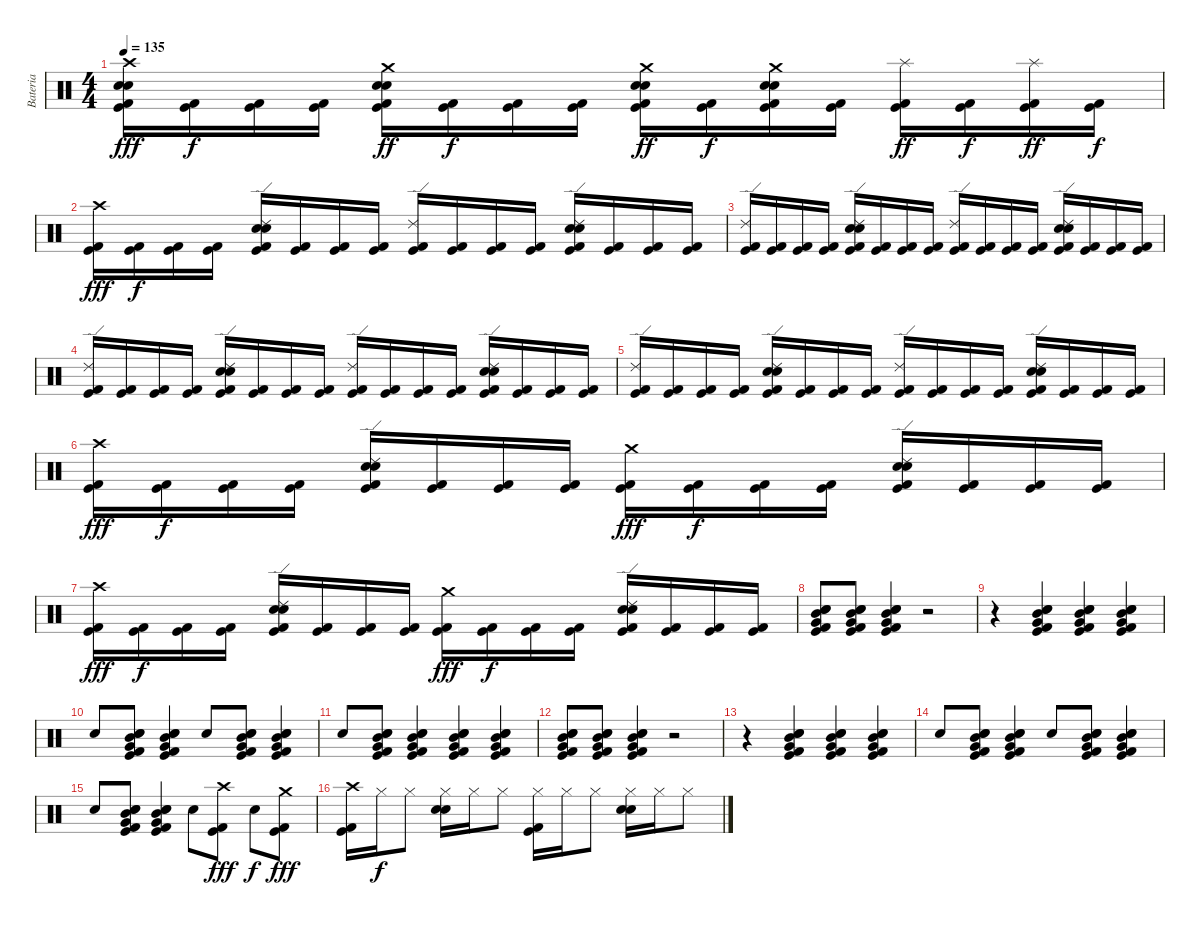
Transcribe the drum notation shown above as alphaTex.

\track ("Bateria" "Bateria") {instrument percussion}
\staff {score}
\articulation defaults
\ts (4 4)
\tempo 135
\clef neutral
\ks c
("Crash high (hit)" "Electric Snare (hit)" "Snare (hit) 2" "Kick (hit) 2" "Kick (hit)").16{dy fff} ("Kick (hit) 2" "Kick (hit)").16{dy f} ("Kick (hit) 2" "Kick (hit)").16 ("Kick (hit) 2" "Kick (hit)").16 ("Crash medium (hit)" "Electric Snare (hit)" "Snare (hit) 2" "Kick (hit) 2" "Kick (hit)").16{dy ff} ("Kick (hit) 2" "Kick (hit)").16{dy f} ("Kick (hit) 2" "Kick (hit)").16 ("Kick (hit) 2" "Kick (hit)").16 ("Crash medium (hit)" "Electric Snare (hit)" "Snare (hit) 2" "Kick (hit) 2" "Kick (hit)").16{dy ff} ("Kick (hit) 2" "Kick (hit)").16{dy f} ("Crash medium (hit)" "Electric Snare (hit)" "Snare (hit) 2" "Kick (hit) 2" "Kick (hit)").16 ("Kick (hit) 2" "Kick (hit)").16 ("Splash (hit)" "Kick (hit) 2" "Kick (hit)").16{dy ff} ("Kick (hit) 2" "Kick (hit)").16{dy f} ("Splash (hit)" "Kick (hit) 2" "Kick (hit)").16{dy ff} ("Kick (hit) 2" "Kick (hit)").16{dy f} |
("Crash high (hit)" "Kick (hit) 2" "Kick (hit)").16{dy fff} ("Kick (hit) 2" "Kick (hit)").16{dy f} ("Kick (hit) 2" "Kick (hit)").16 ("Kick (hit) 2" "Kick (hit)").16 ("Ride (edge) 2" "Electric Snare (hit)" "Snare (hit) 2" "Kick (hit) 2" "Kick (hit)").16 ("Kick (hit) 2" "Kick (hit)").16 ("Kick (hit) 2" "Kick (hit)").16 ("Kick (hit) 2" "Kick (hit)").16 ("Ride (edge) 2" "Kick (hit) 2" "Kick (hit)").16 ("Kick (hit) 2" "Kick (hit)").16 ("Kick (hit) 2" "Kick (hit)").16 ("Kick (hit) 2" "Kick (hit)").16 ("Ride (edge) 2" "Electric Snare (hit)" "Snare (hit) 2" "Kick (hit) 2" "Kick (hit)").16 ("Kick (hit) 2" "Kick (hit)").16 ("Kick (hit) 2" "Kick (hit)").16 ("Kick (hit) 2" "Kick (hit)").16 |
("Ride (edge) 2" "Kick (hit) 2" "Kick (hit)").16 ("Kick (hit) 2" "Kick (hit)").16 ("Kick (hit) 2" "Kick (hit)").16 ("Kick (hit) 2" "Kick (hit)").16 ("Ride (edge) 2" "Electric Snare (hit)" "Snare (hit) 2" "Kick (hit) 2" "Kick (hit)").16 ("Kick (hit) 2" "Kick (hit)").16 ("Kick (hit) 2" "Kick (hit)").16 ("Kick (hit) 2" "Kick (hit)").16 ("Ride (edge) 2" "Kick (hit) 2" "Kick (hit)").16 ("Kick (hit) 2" "Kick (hit)").16 ("Kick (hit) 2" "Kick (hit)").16 ("Kick (hit) 2" "Kick (hit)").16 ("Ride (edge) 2" "Electric Snare (hit)" "Snare (hit) 2" "Kick (hit) 2" "Kick (hit)").16 ("Kick (hit) 2" "Kick (hit)").16 ("Kick (hit) 2" "Kick (hit)").16 ("Kick (hit) 2" "Kick (hit)").16 |
("Ride (edge) 2" "Kick (hit) 2" "Kick (hit)").16 ("Kick (hit) 2" "Kick (hit)").16 ("Kick (hit) 2" "Kick (hit)").16 ("Kick (hit) 2" "Kick (hit)").16 ("Ride (edge) 2" "Electric Snare (hit)" "Snare (hit) 2" "Kick (hit) 2" "Kick (hit)").16 ("Kick (hit) 2" "Kick (hit)").16 ("Kick (hit) 2" "Kick (hit)").16 ("Kick (hit) 2" "Kick (hit)").16 ("Ride (edge) 2" "Kick (hit) 2" "Kick (hit)").16 ("Kick (hit) 2" "Kick (hit)").16 ("Kick (hit) 2" "Kick (hit)").16 ("Kick (hit) 2" "Kick (hit)").16 ("Ride (edge) 2" "Electric Snare (hit)" "Snare (hit) 2" "Kick (hit) 2" "Kick (hit)").16 ("Kick (hit) 2" "Kick (hit)").16 ("Kick (hit) 2" "Kick (hit)").16 ("Kick (hit) 2" "Kick (hit)").16 |
("Ride (edge) 2" "Kick (hit) 2" "Kick (hit)").16 ("Kick (hit) 2" "Kick (hit)").16 ("Kick (hit) 2" "Kick (hit)").16 ("Kick (hit) 2" "Kick (hit)").16 ("Ride (edge) 2" "Electric Snare (hit)" "Snare (hit) 2" "Kick (hit) 2" "Kick (hit)").16 ("Kick (hit) 2" "Kick (hit)").16 ("Kick (hit) 2" "Kick (hit)").16 ("Kick (hit) 2" "Kick (hit)").16 ("Ride (edge) 2" "Kick (hit) 2" "Kick (hit)").16 ("Kick (hit) 2" "Kick (hit)").16 ("Kick (hit) 2" "Kick (hit)").16 ("Kick (hit) 2" "Kick (hit)").16 ("Ride (edge) 2" "Electric Snare (hit)" "Snare (hit) 2" "Kick (hit) 2" "Kick (hit)").16 ("Kick (hit) 2" "Kick (hit)").16 ("Kick (hit) 2" "Kick (hit)").16 ("Kick (hit) 2" "Kick (hit)").16 |
("Crash high (hit)" "Kick (hit) 2" "Kick (hit)").16{dy fff} ("Kick (hit) 2" "Kick (hit)").16{dy f} ("Kick (hit) 2" "Kick (hit)").16 ("Kick (hit) 2" "Kick (hit)").16 ("Ride (edge) 2" "Electric Snare (hit)" "Snare (hit) 2" "Kick (hit) 2" "Kick (hit)").16 ("Kick (hit) 2" "Kick (hit)").16 ("Kick (hit) 2" "Kick (hit)").16 ("Kick (hit) 2" "Kick (hit)").16 ("Crash medium (hit)" "Kick (hit) 2" "Kick (hit)").16{dy fff} ("Kick (hit) 2" "Kick (hit)").16{dy f} ("Kick (hit) 2" "Kick (hit)").16 ("Kick (hit) 2" "Kick (hit)").16 ("Ride (edge) 2" "Electric Snare (hit)" "Snare (hit) 2" "Kick (hit) 2" "Kick (hit)").16 ("Kick (hit) 2" "Kick (hit)").16 ("Kick (hit) 2" "Kick (hit)").16 ("Kick (hit) 2" "Kick (hit)").16 |
("Crash high (hit)" "Kick (hit) 2" "Kick (hit)").16{dy fff} ("Kick (hit) 2" "Kick (hit)").16{dy f} ("Kick (hit) 2" "Kick (hit)").16 ("Kick (hit) 2" "Kick (hit)").16 ("Ride (edge) 2" "Electric Snare (hit)" "Snare (hit) 2" "Kick (hit) 2" "Kick (hit)").16 ("Kick (hit) 2" "Kick (hit)").16 ("Kick (hit) 2" "Kick (hit)").16 ("Kick (hit) 2" "Kick (hit)").16 ("Crash medium (hit)" "Kick (hit) 2" "Kick (hit)").16{dy fff} ("Kick (hit) 2" "Kick (hit)").16{dy f} ("Kick (hit) 2" "Kick (hit)").16 ("Kick (hit) 2" "Kick (hit)").16 ("Ride (edge) 2" "Electric Snare (hit)" "Snare (hit) 2" "Kick (hit) 2" "Kick (hit)").16 ("Kick (hit) 2" "Kick (hit)").16 ("Kick (hit) 2" "Kick (hit)").16 ("Kick (hit) 2" "Kick (hit)").16 |
("Mid Tom (hit)" "Very Low Tom (hit)" "Electric Snare (hit)" "Snare (hit) 2" "Kick (hit) 2" "Kick (hit)").8 ("Mid Tom (hit)" "Very Low Tom (hit)" "Electric Snare (hit)" "Snare (hit) 2" "Kick (hit) 2" "Kick (hit)").8 ("Mid Tom (hit)" "Very Low Tom (hit)" "Electric Snare (hit)" "Snare (hit) 2" "Kick (hit) 2" "Kick (hit)").4 r.2 |
r.4 ("Mid Tom (hit)" "Very Low Tom (hit)" "Electric Snare (hit)" "Snare (hit) 2" "Kick (hit) 2" "Kick (hit)").4 ("Mid Tom (hit)" "Very Low Tom (hit)" "Electric Snare (hit)" "Snare (hit) 2" "Kick (hit) 2" "Kick (hit)").4 ("Mid Tom (hit)" "Very Low Tom (hit)" "Electric Snare (hit)" "Snare (hit) 2" "Kick (hit) 2" "Kick (hit)").4 |
"Snare (hit)"{x}.8 ("Mid Tom (hit)" "Very Low Tom (hit)" "Electric Snare (hit)" "Snare (hit) 2" "Kick (hit) 2" "Kick (hit)").8 ("Mid Tom (hit)" "Very Low Tom (hit)" "Electric Snare (hit)" "Snare (hit) 2" "Kick (hit) 2" "Kick (hit)").4 "Snare (hit)"{x}.8 ("Mid Tom (hit)" "Very Low Tom (hit)" "Electric Snare (hit)" "Snare (hit) 2" "Kick (hit) 2" "Kick (hit)").8 ("Mid Tom (hit)" "Very Low Tom (hit)" "Electric Snare (hit)" "Snare (hit) 2" "Kick (hit) 2" "Kick (hit)").4 |
"Snare (hit)"{x}.8 ("Mid Tom (hit)" "Very Low Tom (hit)" "Electric Snare (hit)" "Snare (hit) 2" "Kick (hit) 2" "Kick (hit)").8 ("Mid Tom (hit)" "Very Low Tom (hit)" "Electric Snare (hit)" "Snare (hit) 2" "Kick (hit) 2" "Kick (hit)").4 ("Mid Tom (hit)" "Very Low Tom (hit)" "Electric Snare (hit)" "Snare (hit) 2" "Kick (hit) 2" "Kick (hit)").4 ("Mid Tom (hit)" "Very Low Tom (hit)" "Electric Snare (hit)" "Snare (hit) 2" "Kick (hit) 2" "Kick (hit)").4 |
("Mid Tom (hit)" "Very Low Tom (hit)" "Electric Snare (hit)" "Snare (hit) 2" "Kick (hit) 2" "Kick (hit)").8 ("Mid Tom (hit)" "Very Low Tom (hit)" "Electric Snare (hit)" "Snare (hit) 2" "Kick (hit) 2" "Kick (hit)").8 ("Mid Tom (hit)" "Very Low Tom (hit)" "Electric Snare (hit)" "Snare (hit) 2" "Kick (hit) 2" "Kick (hit)").4 r.2 |
r.4 ("Mid Tom (hit)" "Very Low Tom (hit)" "Electric Snare (hit)" "Snare (hit) 2" "Kick (hit) 2" "Kick (hit)").4 ("Mid Tom (hit)" "Very Low Tom (hit)" "Electric Snare (hit)" "Snare (hit) 2" "Kick (hit) 2" "Kick (hit)").4 ("Mid Tom (hit)" "Very Low Tom (hit)" "Electric Snare (hit)" "Snare (hit) 2" "Kick (hit) 2" "Kick (hit)").4 |
"Snare (hit)"{x}.8 ("Mid Tom (hit)" "Very Low Tom (hit)" "Electric Snare (hit)" "Snare (hit) 2" "Kick (hit) 2" "Kick (hit)").8 ("Mid Tom (hit)" "Very Low Tom (hit)" "Electric Snare (hit)" "Snare (hit) 2" "Kick (hit) 2" "Kick (hit)").4 "Snare (hit)"{x}.8 ("Mid Tom (hit)" "Very Low Tom (hit)" "Electric Snare (hit)" "Snare (hit) 2" "Kick (hit) 2" "Kick (hit)").8 ("Mid Tom (hit)" "Very Low Tom (hit)" "Electric Snare (hit)" "Snare (hit) 2" "Kick (hit) 2" "Kick (hit)").4 |
"Snare (hit)"{x}.8 ("Mid Tom (hit)" "Very Low Tom (hit)" "Electric Snare (hit)" "Snare (hit) 2" "Kick (hit) 2" "Kick (hit)").8 ("Mid Tom (hit)" "Very Low Tom (hit)" "Electric Snare (hit)" "Snare (hit) 2" "Kick (hit) 2" "Kick (hit)").4 "Snare (hit)"{x}.8 ("Crash high (hit)" "Kick (hit) 2" "Kick (hit)").8{dy fff} "Snare (hit)"{x}.8{dy f} ("Crash medium (hit)" "Kick (hit) 2" "Kick (hit)").8{dy fff} |
("Crash high (hit)" "Kick (hit) 2" "Kick (hit)").16 "Hi-Hat (closed)".16{dy f} "Hi-Hat (closed)".8 ("Hi-Hat (closed)" "Electric Snare (hit)" "Snare (hit) 2").16 "Hi-Hat (closed)".16 "Hi-Hat (closed)".8 ("Hi-Hat (closed)" "Kick (hit) 2" "Kick (hit)").16 "Hi-Hat (closed)".16 "Hi-Hat (closed)".8 ("Hi-Hat (closed)" "Electric Snare (hit)" "Snare (hit) 2").16 "Hi-Hat (closed)".16 "Hi-Hat (closed)".8
